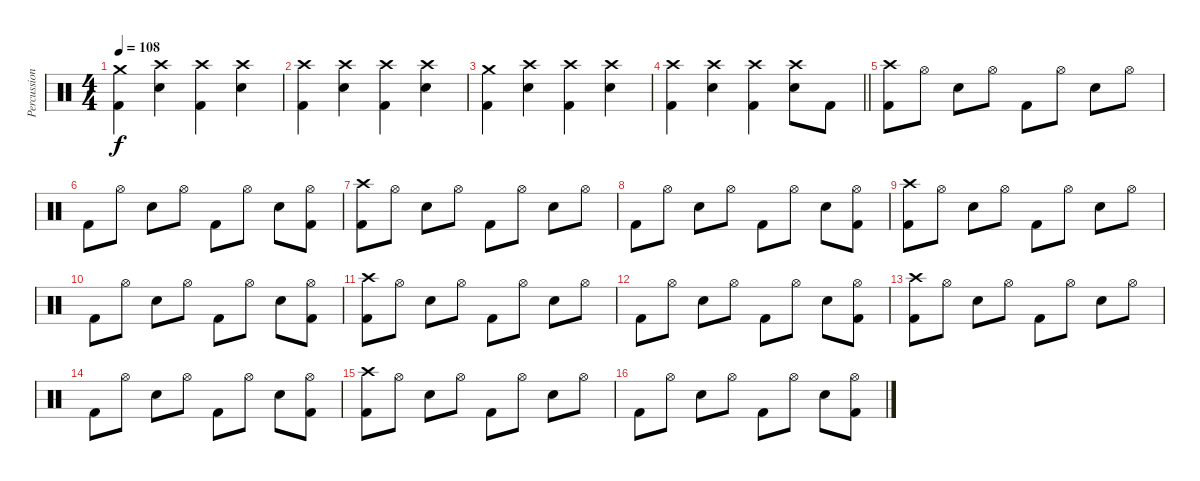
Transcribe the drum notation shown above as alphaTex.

\track ("Percussion" "Percussion") {instrument percussion}
\staff
\articulation defaults
\ts (4 4)
\tempo 108
\clef neutral
\ks c
("Crash medium (hit)" "Kick (hit) 2").4{dy f} ("Crash high (hit)" "Snare (hit) 2").4 ("Crash high (hit)" "Kick (hit) 2").4 ("Crash high (hit)" "Snare (hit) 2").4 |
("Crash high (hit)" "Kick (hit) 2").4 ("Crash high (hit)" "Snare (hit) 2").4 ("Crash high (hit)" "Kick (hit) 2").4 ("Crash high (hit)" "Snare (hit) 2").4 |
("Crash medium (hit)" "Kick (hit) 2").4 ("Crash high (hit)" "Snare (hit) 2").4 ("Crash high (hit)" "Kick (hit) 2").4 ("Crash high (hit)" "Snare (hit) 2").4 |
\barLineRight lightlight
("Crash high (hit)" "Kick (hit) 2").4 ("Crash high (hit)" "Snare (hit) 2").4 ("Crash high (hit)" "Kick (hit) 2").4 ("Crash high (hit)" "Snare (hit) 2").8 "Kick (hit) 2".8 |
\section ("" "")
("Crash high (hit)" "Kick (hit) 2").8 "Hi-Hat (open)".8 "Snare (hit) 2".8 "Hi-Hat (open)".8 "Kick (hit) 2".8 "Hi-Hat (open)".8 "Snare (hit) 2".8 "Hi-Hat (open)".8 |
"Kick (hit) 2".8 "Hi-Hat (open)".8 "Snare (hit) 2".8 "Hi-Hat (open)".8 "Kick (hit) 2".8 "Hi-Hat (open)".8 "Snare (hit) 2".8 ("Hi-Hat (open)" "Kick (hit) 2").8 |
("Crash high (hit)" "Kick (hit) 2").8 "Hi-Hat (open)".8 "Snare (hit) 2".8 "Hi-Hat (open)".8 "Kick (hit) 2".8 "Hi-Hat (open)".8 "Snare (hit) 2".8 "Hi-Hat (open)".8 |
"Kick (hit) 2".8 "Hi-Hat (open)".8 "Snare (hit) 2".8 "Hi-Hat (open)".8 "Kick (hit) 2".8 "Hi-Hat (open)".8 "Snare (hit) 2".8 ("Hi-Hat (open)" "Kick (hit) 2").8 |
("Crash high (hit)" "Kick (hit) 2").8 "Hi-Hat (open)".8 "Snare (hit) 2".8 "Hi-Hat (open)".8 "Kick (hit) 2".8 "Hi-Hat (open)".8 "Snare (hit) 2".8 "Hi-Hat (open)".8 |
"Kick (hit) 2".8 "Hi-Hat (open)".8 "Snare (hit) 2".8 "Hi-Hat (open)".8 "Kick (hit) 2".8 "Hi-Hat (open)".8 "Snare (hit) 2".8 ("Hi-Hat (open)" "Kick (hit) 2").8 |
("Crash high (hit)" "Kick (hit) 2").8 "Hi-Hat (open)".8 "Snare (hit) 2".8 "Hi-Hat (open)".8 "Kick (hit) 2".8 "Hi-Hat (open)".8 "Snare (hit) 2".8 "Hi-Hat (open)".8 |
"Kick (hit) 2".8 "Hi-Hat (open)".8 "Snare (hit) 2".8 "Hi-Hat (open)".8 "Kick (hit) 2".8 "Hi-Hat (open)".8 "Snare (hit) 2".8 ("Hi-Hat (open)" "Kick (hit) 2").8 |
("Crash high (hit)" "Kick (hit) 2").8 "Hi-Hat (open)".8 "Snare (hit) 2".8 "Hi-Hat (open)".8 "Kick (hit) 2".8 "Hi-Hat (open)".8 "Snare (hit) 2".8 "Hi-Hat (open)".8 |
"Kick (hit) 2".8 "Hi-Hat (open)".8 "Snare (hit) 2".8 "Hi-Hat (open)".8 "Kick (hit) 2".8 "Hi-Hat (open)".8 "Snare (hit) 2".8 ("Hi-Hat (open)" "Kick (hit) 2").8 |
("Crash high (hit)" "Kick (hit) 2").8 "Hi-Hat (open)".8 "Snare (hit) 2".8 "Hi-Hat (open)".8 "Kick (hit) 2".8 "Hi-Hat (open)".8 "Snare (hit) 2".8 "Hi-Hat (open)".8 |
"Kick (hit) 2".8 "Hi-Hat (open)".8 "Snare (hit) 2".8 "Hi-Hat (open)".8 "Kick (hit) 2".8 "Hi-Hat (open)".8 "Snare (hit) 2".8 ("Hi-Hat (open)" "Kick (hit) 2").8
